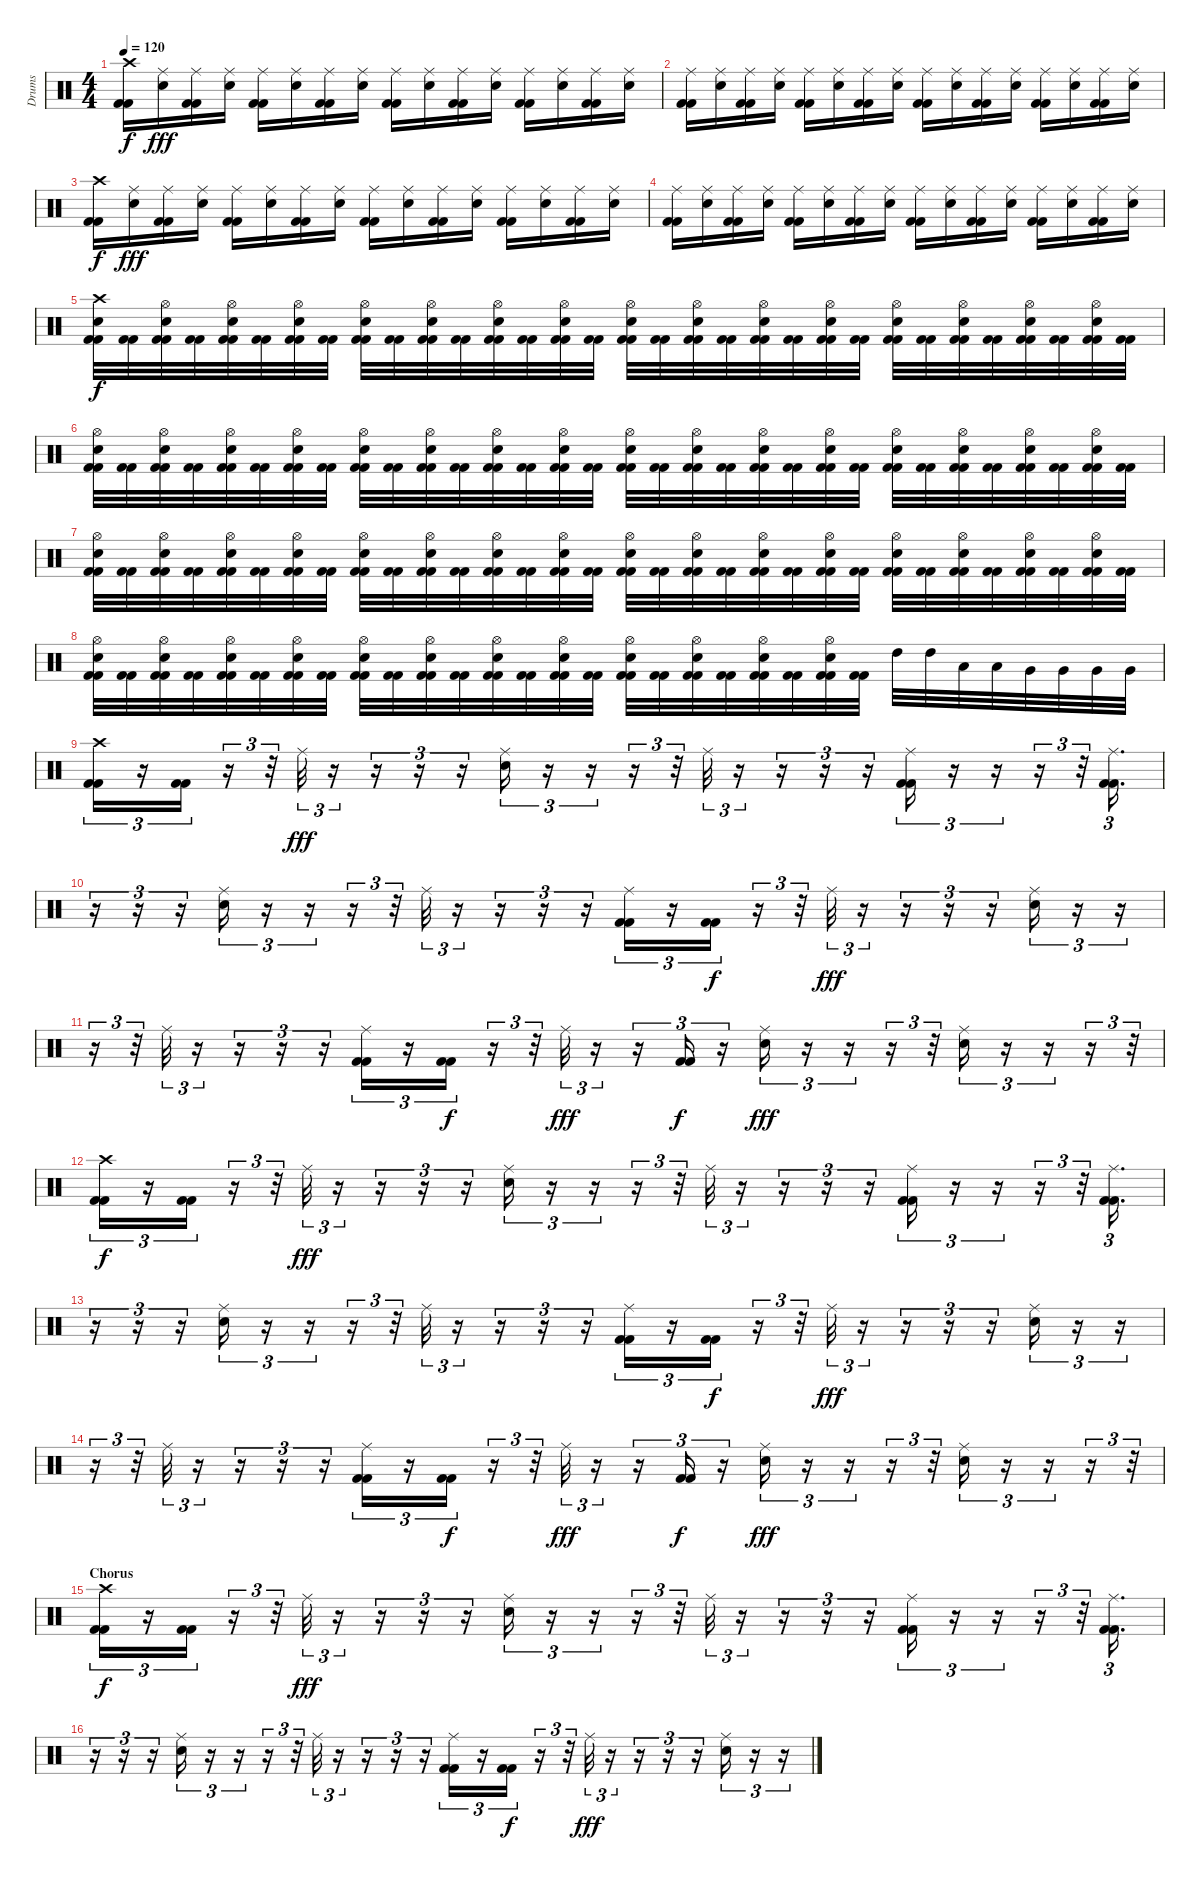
\track ("Drums" "Drums") {instrument percussion}
\staff {score}
\articulation defaults
\ts (4 4)
\tempo 120
\clef neutral
\ks c
("Kick (hit) 2" "Kick (hit) 2" "Crash high (hit)").16{dy f} ("Electric Snare (hit)" "Ride (middle)").16{dy fff} ("Kick (hit) 2" "Kick (hit) 2" "Ride (middle)").16 ("Electric Snare (hit)" "Ride (middle)").16 ("Kick (hit) 2" "Kick (hit) 2" "Ride (middle)").16 ("Electric Snare (hit)" "Ride (middle)").16 ("Kick (hit) 2" "Kick (hit) 2" "Ride (middle)").16 ("Electric Snare (hit)" "Ride (middle)").16 ("Kick (hit) 2" "Kick (hit) 2" "Ride (middle)").16 ("Electric Snare (hit)" "Ride (middle)").16 ("Kick (hit) 2" "Kick (hit) 2" "Ride (middle)").16 ("Electric Snare (hit)" "Ride (middle)").16 ("Kick (hit) 2" "Kick (hit) 2" "Ride (middle)").16 ("Electric Snare (hit)" "Ride (middle)").16 ("Kick (hit) 2" "Kick (hit) 2" "Ride (middle)").16 ("Electric Snare (hit)" "Ride (middle)").16 |
("Kick (hit) 2" "Kick (hit) 2" "Ride (middle)").16 ("Electric Snare (hit)" "Ride (middle)").16 ("Kick (hit) 2" "Kick (hit) 2" "Ride (middle)").16 ("Electric Snare (hit)" "Ride (middle)").16 ("Kick (hit) 2" "Kick (hit) 2" "Ride (middle)").16 ("Electric Snare (hit)" "Ride (middle)").16 ("Kick (hit) 2" "Kick (hit) 2" "Ride (middle)").16 ("Electric Snare (hit)" "Ride (middle)").16 ("Kick (hit) 2" "Kick (hit) 2" "Ride (middle)").16 ("Electric Snare (hit)" "Ride (middle)").16 ("Kick (hit) 2" "Kick (hit) 2" "Ride (middle)").16 ("Electric Snare (hit)" "Ride (middle)").16 ("Kick (hit) 2" "Kick (hit) 2" "Ride (middle)").16 ("Electric Snare (hit)" "Ride (middle)").16 ("Kick (hit) 2" "Kick (hit) 2" "Ride (middle)").16 ("Electric Snare (hit)" "Ride (middle)").16 |
("Kick (hit) 2" "Kick (hit) 2" "Crash high (hit)").16{dy f} ("Electric Snare (hit)" "Ride (middle)").16{dy fff} ("Kick (hit) 2" "Kick (hit) 2" "Ride (middle)").16 ("Electric Snare (hit)" "Ride (middle)").16 ("Kick (hit) 2" "Kick (hit) 2" "Ride (middle)").16 ("Electric Snare (hit)" "Ride (middle)").16 ("Kick (hit) 2" "Kick (hit) 2" "Ride (middle)").16 ("Electric Snare (hit)" "Ride (middle)").16 ("Kick (hit) 2" "Kick (hit) 2" "Ride (middle)").16 ("Electric Snare (hit)" "Ride (middle)").16 ("Kick (hit) 2" "Kick (hit) 2" "Ride (middle)").16 ("Electric Snare (hit)" "Ride (middle)").16 ("Kick (hit) 2" "Kick (hit) 2" "Ride (middle)").16 ("Electric Snare (hit)" "Ride (middle)").16 ("Kick (hit) 2" "Kick (hit) 2" "Ride (middle)").16 ("Electric Snare (hit)" "Ride (middle)").16 |
("Kick (hit) 2" "Kick (hit) 2" "Ride (middle)").16 ("Electric Snare (hit)" "Ride (middle)").16 ("Kick (hit) 2" "Kick (hit) 2" "Ride (middle)").16 ("Electric Snare (hit)" "Ride (middle)").16 ("Kick (hit) 2" "Kick (hit) 2" "Ride (middle)").16 ("Electric Snare (hit)" "Ride (middle)").16 ("Kick (hit) 2" "Kick (hit) 2" "Ride (middle)").16 ("Electric Snare (hit)" "Ride (middle)").16 ("Kick (hit) 2" "Kick (hit) 2" "Ride (middle)").16 ("Electric Snare (hit)" "Ride (middle)").16 ("Kick (hit) 2" "Kick (hit) 2" "Ride (middle)").16 ("Electric Snare (hit)" "Ride (middle)").16 ("Kick (hit) 2" "Kick (hit) 2" "Ride (middle)").16 ("Electric Snare (hit)" "Ride (middle)").16 ("Kick (hit) 2" "Kick (hit) 2" "Ride (middle)").16 ("Electric Snare (hit)" "Ride (middle)").16 |
("Kick (hit) 2" "Kick (hit) 2" "Electric Snare (hit)" "Crash high (hit)").32{dy f} ("Kick (hit) 2" "Kick (hit) 2").32 ("Kick (hit) 2" "Kick (hit) 2" "Electric Snare (hit)" "Hi-Hat (open)").32 ("Kick (hit) 2" "Kick (hit) 2").32 ("Kick (hit) 2" "Kick (hit) 2" "Electric Snare (hit)" "Hi-Hat (open)").32 ("Kick (hit) 2" "Kick (hit) 2").32 ("Kick (hit) 2" "Kick (hit) 2" "Electric Snare (hit)" "Hi-Hat (open)").32 ("Kick (hit) 2" "Kick (hit) 2").32 ("Kick (hit) 2" "Kick (hit) 2" "Electric Snare (hit)" "Hi-Hat (open)").32 ("Kick (hit) 2" "Kick (hit) 2").32 ("Kick (hit) 2" "Kick (hit) 2" "Electric Snare (hit)" "Hi-Hat (open)").32 ("Kick (hit) 2" "Kick (hit) 2").32 ("Kick (hit) 2" "Kick (hit) 2" "Electric Snare (hit)" "Hi-Hat (open)").32 ("Kick (hit) 2" "Kick (hit) 2").32 ("Kick (hit) 2" "Kick (hit) 2" "Electric Snare (hit)" "Hi-Hat (open)").32 ("Kick (hit) 2" "Kick (hit) 2").32 ("Kick (hit) 2" "Kick (hit) 2" "Electric Snare (hit)" "Hi-Hat (open)").32 ("Kick (hit) 2" "Kick (hit) 2").32 ("Kick (hit) 2" "Kick (hit) 2" "Electric Snare (hit)" "Hi-Hat (open)").32 ("Kick (hit) 2" "Kick (hit) 2").32 ("Kick (hit) 2" "Kick (hit) 2" "Electric Snare (hit)" "Hi-Hat (open)").32 ("Kick (hit) 2" "Kick (hit) 2").32 ("Kick (hit) 2" "Kick (hit) 2" "Electric Snare (hit)" "Hi-Hat (open)").32 ("Kick (hit) 2" "Kick (hit) 2").32 ("Kick (hit) 2" "Kick (hit) 2" "Electric Snare (hit)" "Hi-Hat (open)").32 ("Kick (hit) 2" "Kick (hit) 2").32 ("Kick (hit) 2" "Kick (hit) 2" "Electric Snare (hit)" "Hi-Hat (open)").32 ("Kick (hit) 2" "Kick (hit) 2").32 ("Kick (hit) 2" "Kick (hit) 2" "Electric Snare (hit)" "Hi-Hat (open)").32 ("Kick (hit) 2" "Kick (hit) 2").32 ("Kick (hit) 2" "Kick (hit) 2" "Electric Snare (hit)" "Hi-Hat (open)").32 ("Kick (hit) 2" "Kick (hit) 2").32 |
("Kick (hit) 2" "Kick (hit) 2" "Electric Snare (hit)" "Hi-Hat (open)").32 ("Kick (hit) 2" "Kick (hit) 2").32 ("Kick (hit) 2" "Kick (hit) 2" "Electric Snare (hit)" "Hi-Hat (open)").32 ("Kick (hit) 2" "Kick (hit) 2").32 ("Kick (hit) 2" "Kick (hit) 2" "Electric Snare (hit)" "Hi-Hat (open)").32 ("Kick (hit) 2" "Kick (hit) 2").32 ("Kick (hit) 2" "Kick (hit) 2" "Electric Snare (hit)" "Hi-Hat (open)").32 ("Kick (hit) 2" "Kick (hit) 2").32 ("Kick (hit) 2" "Kick (hit) 2" "Electric Snare (hit)" "Hi-Hat (open)").32 ("Kick (hit) 2" "Kick (hit) 2").32 ("Kick (hit) 2" "Kick (hit) 2" "Electric Snare (hit)" "Hi-Hat (open)").32 ("Kick (hit) 2" "Kick (hit) 2").32 ("Kick (hit) 2" "Kick (hit) 2" "Electric Snare (hit)" "Hi-Hat (open)").32 ("Kick (hit) 2" "Kick (hit) 2").32 ("Kick (hit) 2" "Kick (hit) 2" "Electric Snare (hit)" "Hi-Hat (open)").32 ("Kick (hit) 2" "Kick (hit) 2").32 ("Kick (hit) 2" "Kick (hit) 2" "Electric Snare (hit)" "Hi-Hat (open)").32 ("Kick (hit) 2" "Kick (hit) 2").32 ("Kick (hit) 2" "Kick (hit) 2" "Electric Snare (hit)" "Hi-Hat (open)").32 ("Kick (hit) 2" "Kick (hit) 2").32 ("Kick (hit) 2" "Kick (hit) 2" "Electric Snare (hit)" "Hi-Hat (open)").32 ("Kick (hit) 2" "Kick (hit) 2").32 ("Kick (hit) 2" "Kick (hit) 2" "Electric Snare (hit)" "Hi-Hat (open)").32 ("Kick (hit) 2" "Kick (hit) 2").32 ("Kick (hit) 2" "Kick (hit) 2" "Electric Snare (hit)" "Hi-Hat (open)").32 ("Kick (hit) 2" "Kick (hit) 2").32 ("Kick (hit) 2" "Kick (hit) 2" "Electric Snare (hit)" "Hi-Hat (open)").32 ("Kick (hit) 2" "Kick (hit) 2").32 ("Kick (hit) 2" "Kick (hit) 2" "Electric Snare (hit)" "Hi-Hat (open)").32 ("Kick (hit) 2" "Kick (hit) 2").32 ("Kick (hit) 2" "Kick (hit) 2" "Electric Snare (hit)" "Hi-Hat (open)").32 ("Kick (hit) 2" "Kick (hit) 2").32 |
("Kick (hit) 2" "Kick (hit) 2" "Electric Snare (hit)" "Hi-Hat (open)").32 ("Kick (hit) 2" "Kick (hit) 2").32 ("Kick (hit) 2" "Kick (hit) 2" "Electric Snare (hit)" "Hi-Hat (open)").32 ("Kick (hit) 2" "Kick (hit) 2").32 ("Kick (hit) 2" "Kick (hit) 2" "Electric Snare (hit)" "Hi-Hat (open)").32 ("Kick (hit) 2" "Kick (hit) 2").32 ("Kick (hit) 2" "Kick (hit) 2" "Electric Snare (hit)" "Hi-Hat (open)").32 ("Kick (hit) 2" "Kick (hit) 2").32 ("Kick (hit) 2" "Kick (hit) 2" "Electric Snare (hit)" "Hi-Hat (open)").32 ("Kick (hit) 2" "Kick (hit) 2").32 ("Kick (hit) 2" "Kick (hit) 2" "Electric Snare (hit)" "Hi-Hat (open)").32 ("Kick (hit) 2" "Kick (hit) 2").32 ("Kick (hit) 2" "Kick (hit) 2" "Electric Snare (hit)" "Hi-Hat (open)").32 ("Kick (hit) 2" "Kick (hit) 2").32 ("Kick (hit) 2" "Kick (hit) 2" "Electric Snare (hit)" "Hi-Hat (open)").32 ("Kick (hit) 2" "Kick (hit) 2").32 ("Kick (hit) 2" "Kick (hit) 2" "Electric Snare (hit)" "Hi-Hat (open)").32 ("Kick (hit) 2" "Kick (hit) 2").32 ("Kick (hit) 2" "Kick (hit) 2" "Electric Snare (hit)" "Hi-Hat (open)").32 ("Kick (hit) 2" "Kick (hit) 2").32 ("Kick (hit) 2" "Kick (hit) 2" "Electric Snare (hit)" "Hi-Hat (open)").32 ("Kick (hit) 2" "Kick (hit) 2").32 ("Kick (hit) 2" "Kick (hit) 2" "Electric Snare (hit)" "Hi-Hat (open)").32 ("Kick (hit) 2" "Kick (hit) 2").32 ("Kick (hit) 2" "Kick (hit) 2" "Electric Snare (hit)" "Hi-Hat (open)").32 ("Kick (hit) 2" "Kick (hit) 2").32 ("Kick (hit) 2" "Kick (hit) 2" "Electric Snare (hit)" "Hi-Hat (open)").32 ("Kick (hit) 2" "Kick (hit) 2").32 ("Kick (hit) 2" "Kick (hit) 2" "Electric Snare (hit)" "Hi-Hat (open)").32 ("Kick (hit) 2" "Kick (hit) 2").32 ("Kick (hit) 2" "Kick (hit) 2" "Electric Snare (hit)" "Hi-Hat (open)").32 ("Kick (hit) 2" "Kick (hit) 2").32 |
("Kick (hit) 2" "Kick (hit) 2" "Electric Snare (hit)" "Hi-Hat (open)").32 ("Kick (hit) 2" "Kick (hit) 2").32 ("Kick (hit) 2" "Kick (hit) 2" "Electric Snare (hit)" "Hi-Hat (open)").32 ("Kick (hit) 2" "Kick (hit) 2").32 ("Kick (hit) 2" "Kick (hit) 2" "Electric Snare (hit)" "Hi-Hat (open)").32 ("Kick (hit) 2" "Kick (hit) 2").32 ("Kick (hit) 2" "Kick (hit) 2" "Electric Snare (hit)" "Hi-Hat (open)").32 ("Kick (hit) 2" "Kick (hit) 2").32 ("Kick (hit) 2" "Kick (hit) 2" "Electric Snare (hit)" "Hi-Hat (open)").32 ("Kick (hit) 2" "Kick (hit) 2").32 ("Kick (hit) 2" "Kick (hit) 2" "Electric Snare (hit)" "Hi-Hat (open)").32 ("Kick (hit) 2" "Kick (hit) 2").32 ("Kick (hit) 2" "Kick (hit) 2" "Electric Snare (hit)" "Hi-Hat (open)").32 ("Kick (hit) 2" "Kick (hit) 2").32 ("Kick (hit) 2" "Kick (hit) 2" "Electric Snare (hit)" "Hi-Hat (open)").32 ("Kick (hit) 2" "Kick (hit) 2").32 ("Kick (hit) 2" "Kick (hit) 2" "Electric Snare (hit)" "Hi-Hat (open)").32 ("Kick (hit) 2" "Kick (hit) 2").32 ("Kick (hit) 2" "Kick (hit) 2" "Electric Snare (hit)" "Hi-Hat (open)").32 ("Kick (hit) 2" "Kick (hit) 2").32 ("Kick (hit) 2" "Kick (hit) 2" "Electric Snare (hit)" "Hi-Hat (open)").32 ("Kick (hit) 2" "Kick (hit) 2").32 ("Kick (hit) 2" "Kick (hit) 2" "Electric Snare (hit)" "Hi-Hat (open)").32 ("Kick (hit) 2" "Kick (hit) 2").32 "High Tom (hit)".32 "High Tom (hit)".32 "Low Tom (hit)".32 "Low Tom (hit)".32 "Very Low Tom (hit)".32 "Very Low Tom (hit)".32 "Very Low Tom (hit)".32 "Very Low Tom (hit)".32 |
("Kick (hit) 2" "Kick (hit) 2" "Crash high (hit)").16{tu (3 2)} r.16{tu (3 2)} ("Kick (hit) 2" "Kick (hit) 2").16{tu (3 2)} r.16{tu (3 2)} r.32{tu (3 2)} "Ride (middle)".32{tu (3 2) dy fff} r.16{tu (3 2)} r.16{tu (3 2)} r.16{tu (3 2)} r.16{tu (3 2)} ("Electric Snare (hit)" "Ride (middle)").16{tu (3 2)} r.16{tu (3 2)} r.16{tu (3 2)} r.16{tu (3 2)} r.32{tu (3 2)} "Ride (middle)".32{tu (3 2)} r.16{tu (3 2)} r.16{tu (3 2)} r.16{tu (3 2)} r.16{tu (3 2)} ("Kick (hit) 2" "Kick (hit) 2" "Ride (middle)").16{tu (3 2)} r.16{tu (3 2)} r.16{tu (3 2)} r.16{tu (3 2)} r.32{tu (3 2)} ("Kick (hit) 2" "Kick (hit) 2" "Ride (middle)").16{d tu (3 2)} |
r.16{tu (3 2)} r.16{tu (3 2)} r.16{tu (3 2)} ("Electric Snare (hit)" "Ride (middle)").16{tu (3 2)} r.16{tu (3 2)} r.16{tu (3 2)} r.16{tu (3 2)} r.32{tu (3 2)} "Ride (middle)".32{tu (3 2)} r.16{tu (3 2)} r.16{tu (3 2)} r.16{tu (3 2)} r.16{tu (3 2)} ("Kick (hit) 2" "Kick (hit) 2" "Ride (middle)").16{tu (3 2)} r.16{tu (3 2)} ("Kick (hit) 2" "Kick (hit) 2").16{tu (3 2) dy f} r.16{tu (3 2)} r.32{tu (3 2)} "Ride (middle)".32{tu (3 2) dy fff} r.16{tu (3 2)} r.16{tu (3 2)} r.16{tu (3 2)} r.16{tu (3 2)} ("Electric Snare (hit)" "Ride (middle)").16{tu (3 2)} r.16{tu (3 2)} r.16{tu (3 2)} |
r.16{tu (3 2)} r.32{tu (3 2)} "Ride (middle)".32{tu (3 2)} r.16{tu (3 2)} r.16{tu (3 2)} r.16{tu (3 2)} r.16{tu (3 2)} ("Kick (hit) 2" "Kick (hit) 2" "Ride (middle)").16{tu (3 2)} r.16{tu (3 2)} ("Kick (hit) 2" "Kick (hit) 2").16{tu (3 2) dy f} r.16{tu (3 2)} r.32{tu (3 2)} "Ride (middle)".32{tu (3 2) dy fff} r.16{tu (3 2)} r.16{tu (3 2)} ("Kick (hit) 2" "Kick (hit) 2").16{tu (3 2) dy f} r.16{tu (3 2)} ("Electric Snare (hit)" "Ride (middle)").16{tu (3 2) dy fff} r.16{tu (3 2)} r.16{tu (3 2)} r.16{tu (3 2)} r.32{tu (3 2)} ("Electric Snare (hit)" "Ride (middle)").16{tu (3 2)} r.16{tu (3 2)} r.16{tu (3 2)} r.16{tu (3 2)} r.32{tu (3 2)} |
("Kick (hit) 2" "Kick (hit) 2" "Crash high (hit)").16{tu (3 2) dy f} r.16{tu (3 2)} ("Kick (hit) 2" "Kick (hit) 2").16{tu (3 2)} r.16{tu (3 2)} r.32{tu (3 2)} "Ride (middle)".32{tu (3 2) dy fff} r.16{tu (3 2)} r.16{tu (3 2)} r.16{tu (3 2)} r.16{tu (3 2)} ("Electric Snare (hit)" "Ride (middle)").16{tu (3 2)} r.16{tu (3 2)} r.16{tu (3 2)} r.16{tu (3 2)} r.32{tu (3 2)} "Ride (middle)".32{tu (3 2)} r.16{tu (3 2)} r.16{tu (3 2)} r.16{tu (3 2)} r.16{tu (3 2)} ("Kick (hit) 2" "Kick (hit) 2" "Ride (middle)").16{tu (3 2)} r.16{tu (3 2)} r.16{tu (3 2)} r.16{tu (3 2)} r.32{tu (3 2)} ("Kick (hit) 2" "Kick (hit) 2" "Ride (middle)").16{d tu (3 2)} |
r.16{tu (3 2)} r.16{tu (3 2)} r.16{tu (3 2)} ("Electric Snare (hit)" "Ride (middle)").16{tu (3 2)} r.16{tu (3 2)} r.16{tu (3 2)} r.16{tu (3 2)} r.32{tu (3 2)} "Ride (middle)".32{tu (3 2)} r.16{tu (3 2)} r.16{tu (3 2)} r.16{tu (3 2)} r.16{tu (3 2)} ("Kick (hit) 2" "Kick (hit) 2" "Ride (middle)").16{tu (3 2)} r.16{tu (3 2)} ("Kick (hit) 2" "Kick (hit) 2").16{tu (3 2) dy f} r.16{tu (3 2)} r.32{tu (3 2)} "Ride (middle)".32{tu (3 2) dy fff} r.16{tu (3 2)} r.16{tu (3 2)} r.16{tu (3 2)} r.16{tu (3 2)} ("Electric Snare (hit)" "Ride (middle)").16{tu (3 2)} r.16{tu (3 2)} r.16{tu (3 2)} |
r.16{tu (3 2)} r.32{tu (3 2)} "Ride (middle)".32{tu (3 2)} r.16{tu (3 2)} r.16{tu (3 2)} r.16{tu (3 2)} r.16{tu (3 2)} ("Kick (hit) 2" "Kick (hit) 2" "Ride (middle)").16{tu (3 2)} r.16{tu (3 2)} ("Kick (hit) 2" "Kick (hit) 2").16{tu (3 2) dy f} r.16{tu (3 2)} r.32{tu (3 2)} "Ride (middle)".32{tu (3 2) dy fff} r.16{tu (3 2)} r.16{tu (3 2)} ("Kick (hit) 2" "Kick (hit) 2").16{tu (3 2) dy f} r.16{tu (3 2)} ("Electric Snare (hit)" "Ride (middle)").16{tu (3 2) dy fff} r.16{tu (3 2)} r.16{tu (3 2)} r.16{tu (3 2)} r.32{tu (3 2)} ("Electric Snare (hit)" "Ride (middle)").16{tu (3 2)} r.16{tu (3 2)} r.16{tu (3 2)} r.16{tu (3 2)} r.32{tu (3 2)} |
\section ("" "Chorus")
("Kick (hit) 2" "Kick (hit) 2" "Crash high (hit)").16{tu (3 2) dy f} r.16{tu (3 2)} ("Kick (hit) 2" "Kick (hit) 2").16{tu (3 2)} r.16{tu (3 2)} r.32{tu (3 2)} "Ride (middle)".32{tu (3 2) dy fff} r.16{tu (3 2)} r.16{tu (3 2)} r.16{tu (3 2)} r.16{tu (3 2)} ("Electric Snare (hit)" "Ride (middle)").16{tu (3 2)} r.16{tu (3 2)} r.16{tu (3 2)} r.16{tu (3 2)} r.32{tu (3 2)} "Ride (middle)".32{tu (3 2)} r.16{tu (3 2)} r.16{tu (3 2)} r.16{tu (3 2)} r.16{tu (3 2)} ("Kick (hit) 2" "Kick (hit) 2" "Ride (middle)").16{tu (3 2)} r.16{tu (3 2)} r.16{tu (3 2)} r.16{tu (3 2)} r.32{tu (3 2)} ("Kick (hit) 2" "Kick (hit) 2" "Ride (middle)").16{d tu (3 2)} |
r.16{tu (3 2)} r.16{tu (3 2)} r.16{tu (3 2)} ("Electric Snare (hit)" "Ride (middle)").16{tu (3 2)} r.16{tu (3 2)} r.16{tu (3 2)} r.16{tu (3 2)} r.32{tu (3 2)} "Ride (middle)".32{tu (3 2)} r.16{tu (3 2)} r.16{tu (3 2)} r.16{tu (3 2)} r.16{tu (3 2)} ("Kick (hit) 2" "Kick (hit) 2" "Ride (middle)").16{tu (3 2)} r.16{tu (3 2)} ("Kick (hit) 2" "Kick (hit) 2").16{tu (3 2) dy f} r.16{tu (3 2)} r.32{tu (3 2)} "Ride (middle)".32{tu (3 2) dy fff} r.16{tu (3 2)} r.16{tu (3 2)} r.16{tu (3 2)} r.16{tu (3 2)} ("Electric Snare (hit)" "Ride (middle)").16{tu (3 2)} r.16{tu (3 2)} r.16{tu (3 2)}
